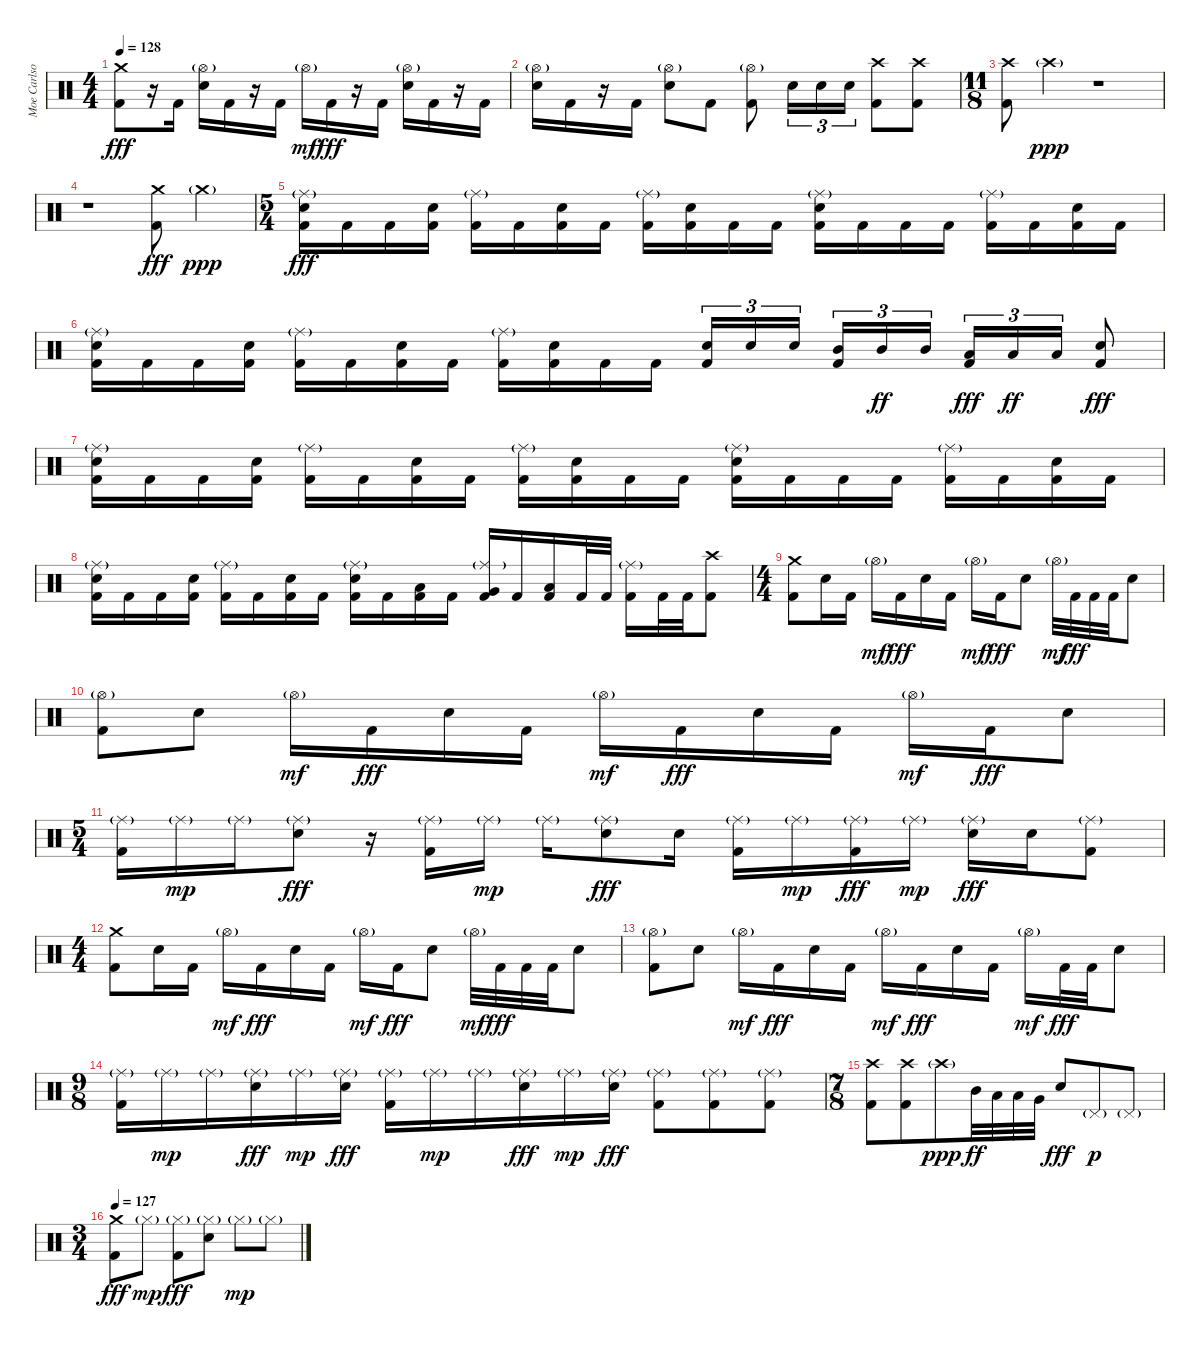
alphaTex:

\track ("Moe Carlson" "Moe Carlso") {instrument percussion}
\staff {score}
\articulation defaults
\ts (4 4)
\tempo 128
\clef neutral
\ks c
("Crash medium (hit)" "Kick (hit) 2").8{dy fff} r.16 "Kick (hit) 2".16 ("Hi-Hat (open)"{g} "Electric Snare (hit)").16 "Kick (hit) 2".16 r.16 "Kick (hit) 2".16 "Hi-Hat (open)"{g}.16{dy mf} "Kick (hit) 2".16{dy fff} r.16 "Kick (hit) 2".16 ("Hi-Hat (open)"{g} "Electric Snare (hit)").16 "Kick (hit) 2".16 r.16 "Kick (hit) 2".16 |
("Hi-Hat (open)"{g} "Electric Snare (hit)").16 "Kick (hit) 2".16 r.16 "Kick (hit) 2".16 ("Hi-Hat (open)"{g} "Electric Snare (hit)").8 "Kick (hit) 2".8 ("Hi-Hat (open)"{g} "Kick (hit) 2").8 "Electric Snare (hit)".16{tu (3 2)} "Electric Snare (hit)".16{tu (3 2)} "Electric Snare (hit)".16{tu (3 2)} ("Crash high (hit)" "Kick (hit) 2").8 ("Crash high (hit)" "Kick (hit) 2").8 |
\ts (11 8)
("Crash high (hit)" "Kick (hit) 2").8 "Crash high (hit)"{g}.4{dy ppp} r.1 |
r.1 ("Crash medium (hit)" "Kick (hit) 2").8{dy fff} "Crash medium (hit)"{g}.4{dy ppp} |
\ts (5 4)
("Ride (middle)"{g} "Electric Snare (hit)" "Kick (hit) 2").16{dy fff} "Kick (hit) 2".16 "Kick (hit) 2".16 ("Electric Snare (hit)" "Kick (hit) 2").16 ("Ride (middle)"{g} "Kick (hit) 2").16 "Kick (hit) 2".16 ("Electric Snare (hit)" "Kick (hit) 2").16 "Kick (hit) 2".16 ("Ride (middle)"{g} "Kick (hit) 2").16 ("Electric Snare (hit)" "Kick (hit) 2").16 "Kick (hit) 2".16 "Kick (hit) 2".16 ("Ride (middle)"{g} "Electric Snare (hit)" "Kick (hit) 2").16 "Kick (hit) 2".16 "Kick (hit) 2".16 "Kick (hit) 2".16 ("Ride (middle)"{g} "Kick (hit) 2").16 "Kick (hit) 2".16 ("Electric Snare (hit)" "Kick (hit) 2").16 "Kick (hit) 2".16 |
("Ride (middle)"{g} "Electric Snare (hit)" "Kick (hit) 2").16 "Kick (hit) 2".16 "Kick (hit) 2".16 ("Electric Snare (hit)" "Kick (hit) 2").16 ("Ride (middle)"{g} "Kick (hit) 2").16 "Kick (hit) 2".16 ("Electric Snare (hit)" "Kick (hit) 2").16 "Kick (hit) 2".16 ("Ride (middle)"{g} "Kick (hit) 2").16 ("Electric Snare (hit)" "Kick (hit) 2").16 "Kick (hit) 2".16 "Kick (hit) 2".16 ("Electric Snare (hit)" "Kick (hit) 2").16{tu (3 2)} "Electric Snare (hit)".16{tu (3 2)} "Electric Snare (hit)".16{tu (3 2)} ("Mid Tom (hit)" "Kick (hit) 2").16{tu (3 2)} "Mid Tom (hit)".16{tu (3 2) dy ff} "Mid Tom (hit)".16{tu (3 2)} ("Low Tom (hit)" "Kick (hit) 2").16{tu (3 2) dy fff} "Low Tom (hit)".16{tu (3 2) dy ff} "Low Tom (hit)".16{tu (3 2)} ("Electric Snare (hit)" "Kick (hit) 2").8{dy fff} |
("Ride (middle)"{g} "Electric Snare (hit)" "Kick (hit) 2").16 "Kick (hit) 2".16 "Kick (hit) 2".16 ("Electric Snare (hit)" "Kick (hit) 2").16 ("Ride (middle)"{g} "Kick (hit) 2").16 "Kick (hit) 2".16 ("Electric Snare (hit)" "Kick (hit) 2").16 "Kick (hit) 2".16 ("Ride (middle)"{g} "Kick (hit) 2").16 ("Electric Snare (hit)" "Kick (hit) 2").16 "Kick (hit) 2".16 "Kick (hit) 2".16 ("Ride (middle)"{g} "Electric Snare (hit)" "Kick (hit) 2").16 "Kick (hit) 2".16 "Kick (hit) 2".16 "Kick (hit) 2".16 ("Ride (middle)"{g} "Kick (hit) 2").16 "Kick (hit) 2".16 ("Electric Snare (hit)" "Kick (hit) 2").16 "Kick (hit) 2".16 |
("Ride (middle)"{g} "Electric Snare (hit)" "Kick (hit) 2").16 "Kick (hit) 2".16 "Kick (hit) 2".16 ("Electric Snare (hit)" "Kick (hit) 2").16 ("Ride (middle)"{g} "Kick (hit) 2").16 "Kick (hit) 2".16 ("Electric Snare (hit)" "Kick (hit) 2").16 "Kick (hit) 2".16 ("Ride (middle)"{g} "Electric Snare (hit)" "Kick (hit) 2").16 "Kick (hit) 2".16 ("Low Tom (hit)" "Kick (hit) 2").16 "Kick (hit) 2".16 ("Ride (middle)"{g} "Very Low Tom (hit)" "Kick (hit) 2").16 "Kick (hit) 2".16 ("Low Floor Tom (hit)" "Kick (hit) 2").16 "Kick (hit) 2".32 "Kick (hit) 2".32 ("Ride (middle)"{g} "Kick (hit) 2").16 "Kick (hit) 2".32 "Kick (hit) 2".32 ("Crash high (hit)" "Kick (hit) 2").8 |
\ts (4 4)
("Crash medium (hit)" "Kick (hit) 2").8 "Electric Snare (hit)".16 "Kick (hit) 2".16 "Hi-Hat (open)"{g}.16{dy mf} "Kick (hit) 2".16{dy fff} "Electric Snare (hit)".16 "Kick (hit) 2".16 "Hi-Hat (open)"{g}.16{dy mf} "Kick (hit) 2".16{dy fff} "Electric Snare (hit)".8 "Hi-Hat (open)"{g}.32{dy mf} "Kick (hit) 2".32{dy fff} "Kick (hit) 2".32 "Kick (hit) 2".32 "Electric Snare (hit)".8 |
("Hi-Hat (open)"{g} "Kick (hit) 2").8 "Electric Snare (hit)".8 "Hi-Hat (open)"{g}.16{dy mf} "Kick (hit) 2".16{dy fff} "Electric Snare (hit)".16 "Kick (hit) 2".16 "Hi-Hat (open)"{g}.16{dy mf} "Kick (hit) 2".16{dy fff} "Electric Snare (hit)".16 "Kick (hit) 2".16 "Hi-Hat (open)"{g}.16{dy mf} "Kick (hit) 2".16{dy fff} "Electric Snare (hit)".8 |
\ts (5 4)
("Ride (middle)"{g} "Kick (hit) 2").16 "Ride (middle)"{g}.16{dy mp} "Ride (middle)"{g}.16 ("Ride (middle)"{g} "Electric Snare (hit)").8{dy fff} r.16 ("Ride (middle)"{g} "Kick (hit) 2").16 "Ride (middle)"{g}.16{dy mp} "Ride (middle)"{g}.16 ("Ride (middle)"{g} "Electric Snare (hit)").8{dy fff} "Electric Snare (hit)".16 ("Ride (middle)"{g} "Kick (hit) 2").16 "Ride (middle)"{g}.16{dy mp} ("Ride (middle)"{g} "Kick (hit) 2").16{dy fff} "Ride (middle)"{g}.16{dy mp} ("Ride (middle)"{g} "Electric Snare (hit)").16{dy fff} "Electric Snare (hit)".16 ("Ride (middle)"{g} "Kick (hit) 2").8 |
\ts (4 4)
("Crash medium (hit)" "Kick (hit) 2").8 "Electric Snare (hit)".16 "Kick (hit) 2".16 "Hi-Hat (open)"{g}.16{dy mf} "Kick (hit) 2".16{dy fff} "Electric Snare (hit)".16 "Kick (hit) 2".16 "Hi-Hat (open)"{g}.16{dy mf} "Kick (hit) 2".16{dy fff} "Electric Snare (hit)".8 "Hi-Hat (open)"{g}.32{dy mf} "Kick (hit) 2".32{dy fff} "Kick (hit) 2".32 "Kick (hit) 2".32 "Electric Snare (hit)".8 |
("Hi-Hat (open)"{g} "Kick (hit) 2").8 "Electric Snare (hit)".8 "Hi-Hat (open)"{g}.16{dy mf} "Kick (hit) 2".16{dy fff} "Electric Snare (hit)".16 "Kick (hit) 2".16 "Hi-Hat (open)"{g}.16{dy mf} "Kick (hit) 2".16{dy fff} "Electric Snare (hit)".16 "Kick (hit) 2".16 "Hi-Hat (open)"{g}.16{dy mf} "Kick (hit) 2".32{dy fff} "Kick (hit) 2".32 "Electric Snare (hit)".8 |
\ts (9 8)
("Ride (middle)"{g} "Kick (hit) 2").16 "Ride (middle)"{g}.16{dy mp} "Ride (middle)"{g}.16 ("Ride (middle)"{g} "Electric Snare (hit)").16{dy fff} "Ride (middle)"{g}.16{dy mp} ("Ride (middle)"{g} "Electric Snare (hit)").16{dy fff} ("Ride (middle)"{g} "Kick (hit) 2").16 "Ride (middle)"{g}.16{dy mp} "Ride (middle)"{g}.16 ("Ride (middle)"{g} "Electric Snare (hit)").16{dy fff} "Ride (middle)"{g}.16{dy mp} ("Ride (middle)"{g} "Electric Snare (hit)").16{dy fff} ("Ride (middle)"{g} "Kick (hit) 2").8 ("Ride (middle)"{g} "Kick (hit) 2").8 ("Ride (middle)"{g} "Kick (hit) 2").8 |
\ts (7 8)
("Crash high (hit)" "Kick (hit) 2").8 ("Crash high (hit)" "Kick (hit) 2").8 "Crash high (hit)"{g}.8{dy ppp} "Mid Tom (hit)".32{dy ff} "Low Tom (hit)".32 "Low Tom (hit)".32 "Very Low Tom (hit)".32 "Electric Snare (hit)".8{dy fff} "Pedal Hi-Hat (hit)"{g}.8{dy p} "Pedal Hi-Hat (hit)"{g}.8 |
\ts (3 4)
\tempo 127
("Crash medium (hit)" "Kick (hit) 2").8{dy fff} "Hi-Hat (closed)"{g}.8{dy mp} ("Hi-Hat (closed)"{g} "Kick (hit) 2").8{dy fff} ("Hi-Hat (closed)"{g} "Electric Snare (hit)").8 "Hi-Hat (closed)"{g}.8{dy mp} "Hi-Hat (closed)"{g}.8
